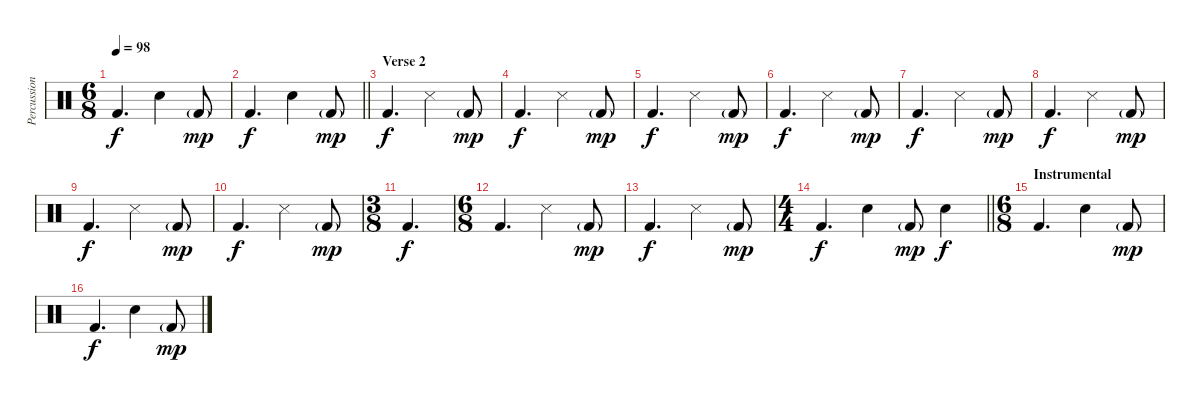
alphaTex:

\track ("Percussion" "Percussion") {instrument percussion}
\staff {score}
\articulation defaults
\ts (6 8)
\tempo 98
\clef neutral
\ks c "Kick (hit) 2".4{d dy f} "Snare (hit) 2".4 "Kick (hit) 2"{g}.8{dy mp}
|
\barLineRight lightlight "Kick (hit) 2".4{d dy f} "Snare (hit) 2".4 "Kick (hit) 2"{g}.8{dy mp}
|
\section ("" "Verse 2")
"Kick (hit) 2".4{d dy f} "Snare (side stick) 3".4 "Kick (hit) 2"{g}.8{dy mp} |
"Kick (hit) 2".4{d dy f} "Snare (side stick) 3".4 "Kick (hit) 2"{g}.8{dy mp} |
"Kick (hit) 2".4{d dy f} "Snare (side stick) 3".4 "Kick (hit) 2"{g}.8{dy mp} |
"Kick (hit) 2".4{d dy f} "Snare (side stick) 3".4 "Kick (hit) 2"{g}.8{dy mp} |
"Kick (hit) 2".4{d dy f} "Snare (side stick) 3".4 "Kick (hit) 2"{g}.8{dy mp} |
"Kick (hit) 2".4{d dy f} "Snare (side stick) 3".4 "Kick (hit) 2"{g}.8{dy mp} |
"Kick (hit) 2".4{d dy f} "Snare (side stick) 3".4 "Kick (hit) 2"{g}.8{dy mp} |
"Kick (hit) 2".4{d dy f} "Snare (side stick) 3".4 "Kick (hit) 2"{g}.8{dy mp} |
\ts (3 8)
"Kick (hit) 2".4{d dy f} |
\ts (6 8)
"Kick (hit) 2".4{d} "Snare (side stick) 3".4 "Kick (hit) 2"{g}.8{dy mp} |
"Kick (hit) 2".4{d dy f} "Snare (side stick) 3".4 "Kick (hit) 2"{g}.8{dy mp} |
\ts (4 4)
\barLineRight lightlight "Kick (hit) 2".4{d dy f} "Snare (hit) 2".4 "Kick (hit) 2"{g}.8{dy mp} "Snare (hit) 2".4{dy f}
|
\ts (6 8)
\section ("" "Instrumental")
"Kick (hit) 2".4{d} "Snare (hit) 2".4 "Kick (hit) 2"{g}.8{dy mp} |
"Kick (hit) 2".4{d dy f} "Snare (hit) 2".4 "Kick (hit) 2"{g}.8{dy mp}
